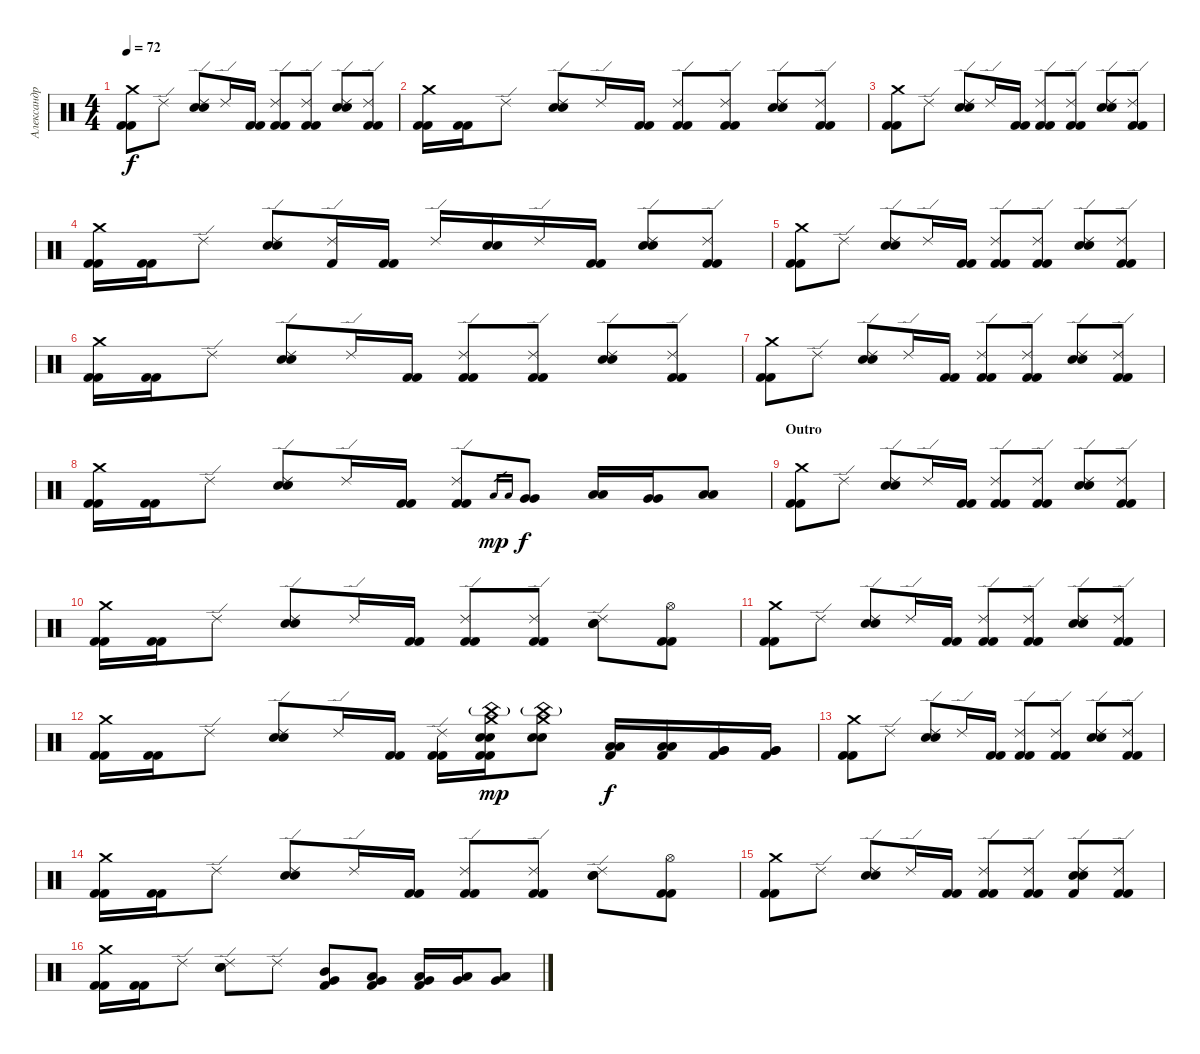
\track ("Александр Манякин (Drums)" "Александр ") {instrument percussion}
\staff {score}
\articulation defaults
\ts (4 4)
\section ("" "")
\tempo 72
\clef neutral
\ks c
("Crash medium (hit)" "Kick (hit) 2" "Kick (hit) 2").8{dy f} "Ride (edge) 2".8 ("Ride (edge) 2" "Electric Snare (hit)" "Electric Snare (hit)").8 "Ride (edge) 2".16 ("Kick (hit) 2" "Kick (hit) 2").16 ("Ride (edge) 2" "Kick (hit) 2" "Kick (hit) 2").8 ("Ride (edge) 2" "Kick (hit) 2" "Kick (hit) 2").8 ("Ride (edge) 2" "Electric Snare (hit)" "Electric Snare (hit)").8 ("Ride (edge) 2" "Kick (hit) 2" "Kick (hit) 2").8 |
("Crash medium (hit)" "Kick (hit) 2" "Kick (hit) 2").16 ("Kick (hit) 2" "Kick (hit) 2").16 "Ride (edge) 2".8 ("Ride (edge) 2" "Electric Snare (hit)" "Electric Snare (hit)").8 "Ride (edge) 2".16 ("Kick (hit) 2" "Kick (hit) 2").16 ("Ride (edge) 2" "Kick (hit) 2" "Kick (hit) 2").8 ("Ride (edge) 2" "Kick (hit) 2" "Kick (hit) 2").8 ("Ride (edge) 2" "Electric Snare (hit)" "Electric Snare (hit)").8 ("Ride (edge) 2" "Kick (hit) 2" "Kick (hit) 2").8 |
("Crash medium (hit)" "Kick (hit) 2" "Kick (hit) 2").8 "Ride (edge) 2".8 ("Ride (edge) 2" "Electric Snare (hit)" "Electric Snare (hit)").8 "Ride (edge) 2".16 ("Kick (hit) 2" "Kick (hit) 2").16 ("Ride (edge) 2" "Kick (hit) 2" "Kick (hit) 2").8 ("Ride (edge) 2" "Kick (hit) 2" "Kick (hit) 2").8 ("Ride (edge) 2" "Electric Snare (hit)" "Electric Snare (hit)").8 ("Ride (edge) 2" "Kick (hit) 2" "Kick (hit) 2").8 |
("Crash medium (hit)" "Kick (hit) 2" "Kick (hit) 2").16 ("Kick (hit) 2" "Kick (hit) 2").16 "Ride (edge) 2".8 ("Ride (edge) 2" "Electric Snare (hit)" "Electric Snare (hit)").8 ("Ride (edge) 2" "Kick (hit) 2").16 ("Kick (hit) 2" "Kick (hit) 2").16 "Ride (edge) 2".16 ("Electric Snare (hit)" "Electric Snare (hit)").16 "Ride (edge) 2".16 ("Kick (hit) 2" "Kick (hit) 2").16 ("Ride (edge) 2" "Electric Snare (hit)" "Electric Snare (hit)").8 ("Ride (edge) 2" "Kick (hit) 2" "Kick (hit) 2").8 |
("Crash medium (hit)" "Kick (hit) 2" "Kick (hit) 2").8 "Ride (edge) 2".8 ("Ride (edge) 2" "Electric Snare (hit)" "Electric Snare (hit)").8 "Ride (edge) 2".16 ("Kick (hit) 2" "Kick (hit) 2").16 ("Ride (edge) 2" "Kick (hit) 2" "Kick (hit) 2").8 ("Ride (edge) 2" "Kick (hit) 2" "Kick (hit) 2").8 ("Ride (edge) 2" "Electric Snare (hit)" "Electric Snare (hit)").8 ("Ride (edge) 2" "Kick (hit) 2" "Kick (hit) 2").8 |
("Crash medium (hit)" "Kick (hit) 2" "Kick (hit) 2").16 ("Kick (hit) 2" "Kick (hit) 2").16 "Ride (edge) 2".8 ("Ride (edge) 2" "Electric Snare (hit)" "Electric Snare (hit)").8 "Ride (edge) 2".16 ("Kick (hit) 2" "Kick (hit) 2").16 ("Ride (edge) 2" "Kick (hit) 2" "Kick (hit) 2").8 ("Ride (edge) 2" "Kick (hit) 2" "Kick (hit) 2").8 ("Ride (edge) 2" "Electric Snare (hit)" "Electric Snare (hit)").8 ("Ride (edge) 2" "Kick (hit) 2" "Kick (hit) 2").8 |
("Crash medium (hit)" "Kick (hit) 2" "Kick (hit) 2").8 "Ride (edge) 2".8 ("Ride (edge) 2" "Electric Snare (hit)" "Electric Snare (hit)").8 "Ride (edge) 2".16 ("Kick (hit) 2" "Kick (hit) 2").16 ("Ride (edge) 2" "Kick (hit) 2" "Kick (hit) 2").8 ("Ride (edge) 2" "Kick (hit) 2" "Kick (hit) 2").8 ("Ride (edge) 2" "Electric Snare (hit)" "Electric Snare (hit)").8 ("Ride (edge) 2" "Kick (hit) 2" "Kick (hit) 2").8 |
("Crash medium (hit)" "Kick (hit) 2" "Kick (hit) 2").16 ("Kick (hit) 2" "Kick (hit) 2").16 "Ride (edge) 2".8 ("Ride (edge) 2" "Electric Snare (hit)" "Electric Snare (hit)").8 "Ride (edge) 2".16 ("Kick (hit) 2" "Kick (hit) 2").16 ("Ride (edge) 2" "Kick (hit) 2" "Kick (hit) 2").8 "Low Tom (hit)".16{gr dy mp} "Low Tom (hit)".16{gr} ("Very Low Tom (hit)" "Very Low Tom (hit)").8{dy f} ("Low Tom (hit)" "Low Tom (hit)").16 ("Very Low Tom (hit)" "Very Low Tom (hit)").16 ("Low Floor Tom (hit)" "Low Floor Tom (hit)").8 |
\section ("" "Outro")
("Crash medium (hit)" "Kick (hit) 2" "Kick (hit) 2").8 "Ride (edge) 2".8 ("Ride (edge) 2" "Electric Snare (hit)" "Electric Snare (hit)").8 "Ride (edge) 2".16 ("Kick (hit) 2" "Kick (hit) 2").16 ("Ride (edge) 2" "Kick (hit) 2" "Kick (hit) 2").8 ("Ride (edge) 2" "Kick (hit) 2" "Kick (hit) 2").8 ("Ride (edge) 2" "Electric Snare (hit)" "Electric Snare (hit)").8 ("Ride (edge) 2" "Kick (hit) 2" "Kick (hit) 2").8 |
("Crash medium (hit)" "Kick (hit) 2" "Kick (hit) 2").16 ("Kick (hit) 2" "Kick (hit) 2").16 "Ride (edge) 2".8 ("Ride (edge) 2" "Electric Snare (hit)" "Electric Snare (hit)").8 "Ride (edge) 2".16 ("Kick (hit) 2" "Kick (hit) 2").16 ("Ride (edge) 2" "Kick (hit) 2" "Kick (hit) 2").8 ("Ride (edge) 2" "Kick (hit) 2" "Kick (hit) 2").8 ("Ride (edge) 2" "Electric Snare (hit)" "Electric Snare (hit)").8 ("Hi-Hat (open)" "Kick (hit) 2" "Kick (hit) 2").8 |
("Crash medium (hit)" "Kick (hit) 2" "Kick (hit) 2").8 "Ride (edge) 2".8 ("Ride (edge) 2" "Electric Snare (hit)" "Electric Snare (hit)").8 "Ride (edge) 2".16 ("Kick (hit) 2" "Kick (hit) 2").16 ("Ride (edge) 2" "Kick (hit) 2" "Kick (hit) 2").8 ("Ride (edge) 2" "Kick (hit) 2" "Kick (hit) 2").8 ("Ride (edge) 2" "Electric Snare (hit)" "Electric Snare (hit)").8 ("Ride (edge) 2" "Kick (hit) 2" "Kick (hit) 2").8 |
("Crash medium (hit)" "Kick (hit) 2" "Kick (hit) 2").16 ("Kick (hit) 2" "Kick (hit) 2").16 "Ride (edge) 2".8 ("Ride (edge) 2" "Electric Snare (hit)" "Electric Snare (hit)").8 "Ride (edge) 2".16 ("Kick (hit) 2" "Kick (hit) 2").16 ("Ride (edge) 2" "Kick (hit) 2" "Kick (hit) 2").16 ("Crash medium (hit)" "China (hit)"{g} "Electric Snare (hit)" "Electric Snare (hit)" "Kick (hit) 2" "Kick (hit) 2").16{dy mp} ("Crash medium (hit)" "China (hit)"{g} "Electric Snare (hit)" "Electric Snare (hit)").8 ("Low Tom (hit)" "Low Tom (hit)" "Kick (hit) 2").16{dy f} ("Low Tom (hit)" "Low Tom (hit)" "Kick (hit) 2").16 ("Very Low Tom (hit)" "Very Low Tom (hit)" "Kick (hit) 2").16 ("Very Low Tom (hit)" "Very Low Tom (hit)" "Kick (hit) 2").16 |
("Crash medium (hit)" "Kick (hit) 2" "Kick (hit) 2").8 "Ride (edge) 2".8 ("Ride (edge) 2" "Electric Snare (hit)" "Electric Snare (hit)").8 "Ride (edge) 2".16 ("Kick (hit) 2" "Kick (hit) 2").16 ("Ride (edge) 2" "Kick (hit) 2" "Kick (hit) 2").8 ("Ride (edge) 2" "Kick (hit) 2" "Kick (hit) 2").8 ("Ride (edge) 2" "Electric Snare (hit)" "Electric Snare (hit)").8 ("Ride (edge) 2" "Kick (hit) 2" "Kick (hit) 2").8 |
("Crash medium (hit)" "Kick (hit) 2" "Kick (hit) 2").16 ("Kick (hit) 2" "Kick (hit) 2").16 "Ride (edge) 2".8 ("Ride (edge) 2" "Electric Snare (hit)" "Electric Snare (hit)").8 "Ride (edge) 2".16 ("Kick (hit) 2" "Kick (hit) 2").16 ("Ride (edge) 2" "Kick (hit) 2" "Kick (hit) 2").8 ("Ride (edge) 2" "Kick (hit) 2" "Kick (hit) 2").8 ("Ride (edge) 2" "Electric Snare (hit)" "Electric Snare (hit)").8 ("Hi-Hat (open)" "Kick (hit) 2" "Kick (hit) 2").8 |
("Crash medium (hit)" "Kick (hit) 2" "Kick (hit) 2").8 "Ride (edge) 2".8 ("Ride (edge) 2" "Electric Snare (hit)" "Electric Snare (hit)").8 "Ride (edge) 2".16 ("Kick (hit) 2" "Kick (hit) 2").16 ("Ride (edge) 2" "Kick (hit) 2" "Kick (hit) 2").8 ("Ride (edge) 2" "Kick (hit) 2" "Kick (hit) 2").8 ("Ride (edge) 2" "Electric Snare (hit)" "Electric Snare (hit)" "Kick (hit) 2").8 ("Ride (edge) 2" "Kick (hit) 2" "Kick (hit) 2").8 |
("Crash medium (hit)" "Kick (hit) 2" "Kick (hit) 2").16 ("Kick (hit) 2" "Kick (hit) 2").16 "Ride (edge) 2".8 ("Ride (edge) 2" "Electric Snare (hit)" "Electric Snare (hit)").8 "Ride (edge) 2".8 ("Mid Tom (hit)" "Very Low Tom (hit)" "Kick (hit) 2").8 ("Low Tom (hit)" "Very Low Tom (hit)" "Kick (hit) 2").8 ("Very Low Tom (hit)" "Low Floor Tom (hit)" "Kick (hit) 2").16 ("Very Low Tom (hit)" "Low Floor Tom (hit)").16 ("Very Low Tom (hit)" "Low Floor Tom (hit)").8
